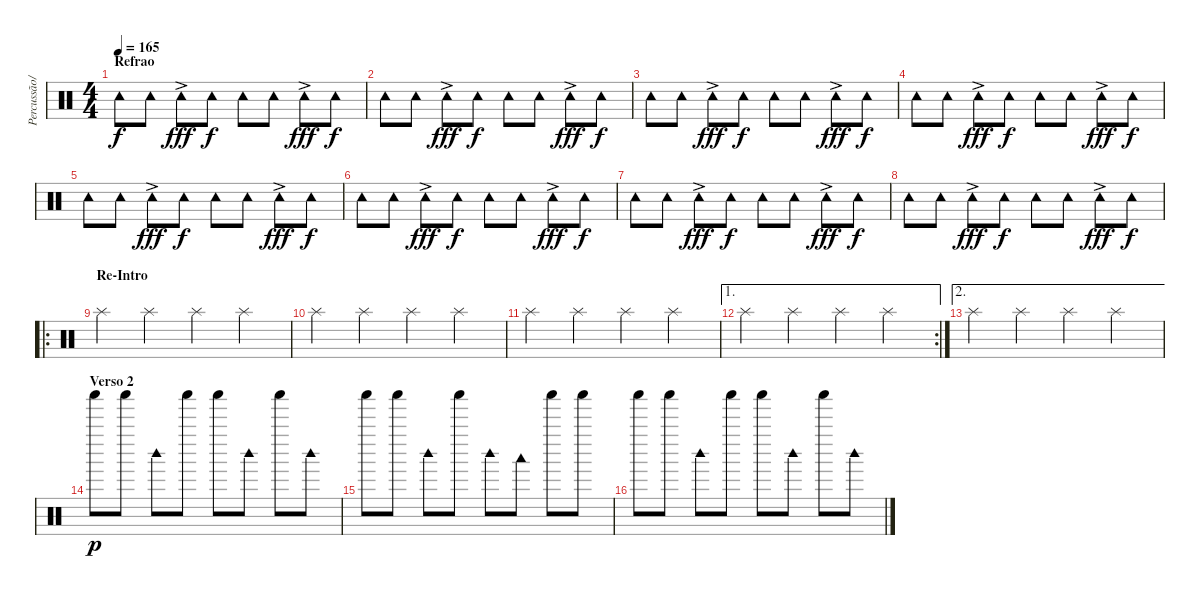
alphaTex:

\track ("Percussão/DJ" "Percussão/") {instrument percussion}
\staff {score}
\articulation defaults
\ts (4 4)
\section ("" "Refrao")
\tempo 165
\clef neutral
\ks c "Tambourine (hit)".8{dy f} "Tambourine (hit)".8 "Tambourine (hit)"{ac}.8{dy fff} "Tambourine (hit)".8{dy f} "Tambourine (hit)".8 "Tambourine (hit)".8 "Tambourine (hit)"{ac}.8{dy fff} "Tambourine (hit)".8{dy f}
|
"Tambourine (hit)".8 "Tambourine (hit)".8 "Tambourine (hit)"{ac}.8{dy fff} "Tambourine (hit)".8{dy f} "Tambourine (hit)".8 "Tambourine (hit)".8 "Tambourine (hit)"{ac}.8{dy fff} "Tambourine (hit)".8{dy f} |
"Tambourine (hit)".8 "Tambourine (hit)".8 "Tambourine (hit)"{ac}.8{dy fff} "Tambourine (hit)".8{dy f} "Tambourine (hit)".8 "Tambourine (hit)".8 "Tambourine (hit)"{ac}.8{dy fff} "Tambourine (hit)".8{dy f} |
"Tambourine (hit)".8 "Tambourine (hit)".8 "Tambourine (hit)"{ac}.8{dy fff} "Tambourine (hit)".8{dy f} "Tambourine (hit)".8 "Tambourine (hit)".8 "Tambourine (hit)"{ac}.8{dy fff} "Tambourine (hit)".8{dy f} |
"Tambourine (hit)".8 "Tambourine (hit)".8 "Tambourine (hit)"{ac}.8{dy fff} "Tambourine (hit)".8{dy f} "Tambourine (hit)".8 "Tambourine (hit)".8 "Tambourine (hit)"{ac}.8{dy fff} "Tambourine (hit)".8{dy f} |
"Tambourine (hit)".8 "Tambourine (hit)".8 "Tambourine (hit)"{ac}.8{dy fff} "Tambourine (hit)".8{dy f} "Tambourine (hit)".8 "Tambourine (hit)".8 "Tambourine (hit)"{ac}.8{dy fff} "Tambourine (hit)".8{dy f} |
"Tambourine (hit)".8 "Tambourine (hit)".8 "Tambourine (hit)"{ac}.8{dy fff} "Tambourine (hit)".8{dy f} "Tambourine (hit)".8 "Tambourine (hit)".8 "Tambourine (hit)"{ac}.8{dy fff} "Tambourine (hit)".8{dy f} |
"Tambourine (hit)".8 "Tambourine (hit)".8 "Tambourine (hit)"{ac}.8{dy fff} "Tambourine (hit)".8{dy f} "Tambourine (hit)".8 "Tambourine (hit)".8 "Tambourine (hit)"{ac}.8{dy fff} "Tambourine (hit)".8{dy f} |
\ro
\section ("" "Re-Intro")
"Splash (hit)".4 "Splash (hit)".4 "Splash (hit)".4 "Splash (hit)".4 |
"Splash (hit)".4 "Splash (hit)".4 "Splash (hit)".4 "Splash (hit)".4 |
"Splash (hit)".4 "Splash (hit)".4 "Splash (hit)".4 "Splash (hit)".4 |
\ae 1
\rc 2 "Splash (hit)".4 "Splash (hit)".4 "Splash (hit)".4 "Splash (hit)".4
|
\ae 2 "Splash (hit)".4 "Splash (hit)".4 "Splash (hit)".4 "Splash (hit)".4
|
\section ("" "Verso 2")
"Shaker (hit)".8{dy p} "Shaker (hit)".8 "Woodblock high (hit)".8 "Shaker (hit)".8 "Shaker (hit)".8 "Woodblock high (hit)".8 "Shaker (hit)".8 "Woodblock high (hit)".8 |
"Shaker (hit)".8 "Shaker (hit)".8 "Woodblock high (hit)".8 "Shaker (hit)".8 "Woodblock high (hit)".8 "Woodblock low (hit)".8 "Shaker (hit)".8 "Shaker (hit)".8 |
"Shaker (hit)".8 "Shaker (hit)".8 "Woodblock high (hit)".8 "Shaker (hit)".8 "Shaker (hit)".8 "Woodblock high (hit)".8 "Shaker (hit)".8 "Woodblock high (hit)".8
